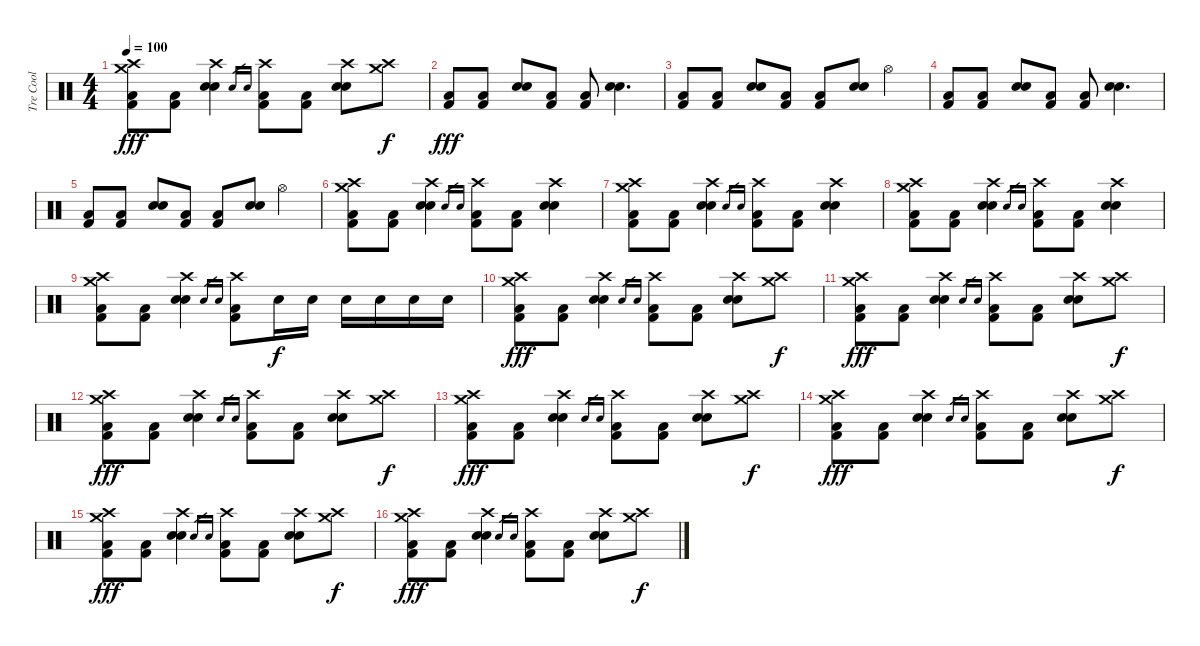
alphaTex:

\track ("Tre Cool" "Tre Cool") {instrument percussion}
\staff {score}
\articulation defaults
\ts (4 4)
\tempo 100
\clef neutral
\ks c
("Crash high (hit)" "Crash medium (hit)" "Kick (hit) 2" "Low Floor Tom (hit)").8{dy fff} ("Kick (hit) 2" "Low Floor Tom (hit)").8 ("Crash high (hit)" "Electric Snare (hit)" "Electric Snare (hit)").4 "Electric Snare (hit)".16{gr} "Electric Snare (hit)".16{gr} ("Crash high (hit)" "Kick (hit) 2" "Low Floor Tom (hit)").8 ("Kick (hit) 2" "Low Floor Tom (hit)").8 ("Crash high (hit)" "Electric Snare (hit)" "Electric Snare (hit)").8 ("Crash high (hit)" "Crash medium (hit)").8{dy f} |
("Kick (hit) 2" "Low Floor Tom (hit)").8{dy fff} ("Kick (hit) 2" "Low Floor Tom (hit)").8 ("Electric Snare (hit)" "Electric Snare (hit)").8 ("Kick (hit) 2" "Low Floor Tom (hit)").8 ("Kick (hit) 2" "Low Floor Tom (hit)").8 ("Electric Snare (hit)" "Electric Snare (hit)").4{d} |
("Kick (hit) 2" "Low Floor Tom (hit)").8 ("Kick (hit) 2" "Low Floor Tom (hit)").8 ("Electric Snare (hit)" "Electric Snare (hit)").8 ("Kick (hit) 2" "Low Floor Tom (hit)").8 ("Kick (hit) 2" "Low Floor Tom (hit)").8 ("Electric Snare (hit)" "Electric Snare (hit)").8 "Hi-Hat (open)".4 |
("Kick (hit) 2" "Low Floor Tom (hit)").8 ("Kick (hit) 2" "Low Floor Tom (hit)").8 ("Electric Snare (hit)" "Electric Snare (hit)").8 ("Kick (hit) 2" "Low Floor Tom (hit)").8 ("Kick (hit) 2" "Low Floor Tom (hit)").8 ("Electric Snare (hit)" "Electric Snare (hit)").4{d} |
("Kick (hit) 2" "Low Floor Tom (hit)").8 ("Kick (hit) 2" "Low Floor Tom (hit)").8 ("Electric Snare (hit)" "Electric Snare (hit)").8 ("Kick (hit) 2" "Low Floor Tom (hit)").8 ("Kick (hit) 2" "Low Floor Tom (hit)").8 ("Electric Snare (hit)" "Electric Snare (hit)").8 "Hi-Hat (open)".4 |
("Crash high (hit)" "Crash medium (hit)" "Kick (hit) 2" "Low Floor Tom (hit)").8 ("Kick (hit) 2" "Low Floor Tom (hit)").8 ("Crash high (hit)" "Electric Snare (hit)" "Electric Snare (hit)").4 "Electric Snare (hit)".16{gr} "Electric Snare (hit)".16{gr} ("Crash high (hit)" "Kick (hit) 2" "Low Floor Tom (hit)").8 ("Kick (hit) 2" "Low Floor Tom (hit)").8 ("Crash high (hit)" "Electric Snare (hit)" "Electric Snare (hit)").4 |
("Crash high (hit)" "Crash medium (hit)" "Kick (hit) 2" "Low Floor Tom (hit)").8 ("Kick (hit) 2" "Low Floor Tom (hit)").8 ("Crash high (hit)" "Electric Snare (hit)" "Electric Snare (hit)").4 "Electric Snare (hit)".16{gr} "Electric Snare (hit)".16{gr} ("Crash high (hit)" "Kick (hit) 2" "Low Floor Tom (hit)").8 ("Kick (hit) 2" "Low Floor Tom (hit)").8 ("Crash high (hit)" "Electric Snare (hit)" "Electric Snare (hit)").4 |
("Crash high (hit)" "Crash medium (hit)" "Kick (hit) 2" "Low Floor Tom (hit)").8 ("Kick (hit) 2" "Low Floor Tom (hit)").8 ("Crash high (hit)" "Electric Snare (hit)" "Electric Snare (hit)").4 "Electric Snare (hit)".16{gr} "Electric Snare (hit)".16{gr} ("Crash high (hit)" "Kick (hit) 2" "Low Floor Tom (hit)").8 ("Kick (hit) 2" "Low Floor Tom (hit)").8 ("Crash high (hit)" "Electric Snare (hit)" "Electric Snare (hit)").4 |
("Crash high (hit)" "Crash medium (hit)" "Kick (hit) 2" "Low Floor Tom (hit)").8 ("Kick (hit) 2" "Low Floor Tom (hit)").8 ("Crash high (hit)" "Electric Snare (hit)" "Electric Snare (hit)").4 "Electric Snare (hit)".16{gr} "Electric Snare (hit)".16{gr} ("Crash high (hit)" "Kick (hit) 2" "Low Floor Tom (hit)").8 "Electric Snare (hit)".16{dy f} "Electric Snare (hit)".16 "Electric Snare (hit)".16 "Electric Snare (hit)".16 "Electric Snare (hit)".16 "Electric Snare (hit)".16 |
("Crash high (hit)" "Crash medium (hit)" "Kick (hit) 2" "Low Floor Tom (hit)").8{dy fff} ("Kick (hit) 2" "Low Floor Tom (hit)").8 ("Crash high (hit)" "Electric Snare (hit)" "Electric Snare (hit)").4 "Electric Snare (hit)".16{gr} "Electric Snare (hit)".16{gr} ("Crash high (hit)" "Kick (hit) 2" "Low Floor Tom (hit)").8 ("Kick (hit) 2" "Low Floor Tom (hit)").8 ("Crash high (hit)" "Electric Snare (hit)" "Electric Snare (hit)").8 ("Crash high (hit)" "Crash medium (hit)").8{dy f} |
("Crash high (hit)" "Crash medium (hit)" "Kick (hit) 2" "Low Floor Tom (hit)").8{dy fff} ("Kick (hit) 2" "Low Floor Tom (hit)").8 ("Crash high (hit)" "Electric Snare (hit)" "Electric Snare (hit)").4 "Electric Snare (hit)".16{gr} "Electric Snare (hit)".16{gr} ("Crash high (hit)" "Kick (hit) 2" "Low Floor Tom (hit)").8 ("Kick (hit) 2" "Low Floor Tom (hit)").8 ("Crash high (hit)" "Electric Snare (hit)" "Electric Snare (hit)").8 ("Crash high (hit)" "Crash medium (hit)").8{dy f} |
("Crash high (hit)" "Crash medium (hit)" "Kick (hit) 2" "Low Floor Tom (hit)").8{dy fff} ("Kick (hit) 2" "Low Floor Tom (hit)").8 ("Crash high (hit)" "Electric Snare (hit)" "Electric Snare (hit)").4 "Electric Snare (hit)".16{gr} "Electric Snare (hit)".16{gr} ("Crash high (hit)" "Kick (hit) 2" "Low Floor Tom (hit)").8 ("Kick (hit) 2" "Low Floor Tom (hit)").8 ("Crash high (hit)" "Electric Snare (hit)" "Electric Snare (hit)").8 ("Crash high (hit)" "Crash medium (hit)").8{dy f} |
("Crash high (hit)" "Crash medium (hit)" "Kick (hit) 2" "Low Floor Tom (hit)").8{dy fff} ("Kick (hit) 2" "Low Floor Tom (hit)").8 ("Crash high (hit)" "Electric Snare (hit)" "Electric Snare (hit)").4 "Electric Snare (hit)".16{gr} "Electric Snare (hit)".16{gr} ("Crash high (hit)" "Kick (hit) 2" "Low Floor Tom (hit)").8 ("Kick (hit) 2" "Low Floor Tom (hit)").8 ("Crash high (hit)" "Electric Snare (hit)" "Electric Snare (hit)").8 ("Crash high (hit)" "Crash medium (hit)").8{dy f} |
("Crash high (hit)" "Crash medium (hit)" "Kick (hit) 2" "Low Floor Tom (hit)").8{dy fff} ("Kick (hit) 2" "Low Floor Tom (hit)").8 ("Crash high (hit)" "Electric Snare (hit)" "Electric Snare (hit)").4 "Electric Snare (hit)".16{gr} "Electric Snare (hit)".16{gr} ("Crash high (hit)" "Kick (hit) 2" "Low Floor Tom (hit)").8 ("Kick (hit) 2" "Low Floor Tom (hit)").8 ("Crash high (hit)" "Electric Snare (hit)" "Electric Snare (hit)").8 ("Crash high (hit)" "Crash medium (hit)").8{dy f} |
("Crash high (hit)" "Crash medium (hit)" "Kick (hit) 2" "Low Floor Tom (hit)").8{dy fff} ("Kick (hit) 2" "Low Floor Tom (hit)").8 ("Crash high (hit)" "Electric Snare (hit)" "Electric Snare (hit)").4 "Electric Snare (hit)".16{gr} "Electric Snare (hit)".16{gr} ("Crash high (hit)" "Kick (hit) 2" "Low Floor Tom (hit)").8 ("Kick (hit) 2" "Low Floor Tom (hit)").8 ("Crash high (hit)" "Electric Snare (hit)" "Electric Snare (hit)").8 ("Crash high (hit)" "Crash medium (hit)").8{dy f} |
("Crash high (hit)" "Crash medium (hit)" "Kick (hit) 2" "Low Floor Tom (hit)").8{dy fff} ("Kick (hit) 2" "Low Floor Tom (hit)").8 ("Crash high (hit)" "Electric Snare (hit)" "Electric Snare (hit)").4 "Electric Snare (hit)".16{gr} "Electric Snare (hit)".16{gr} ("Crash high (hit)" "Kick (hit) 2" "Low Floor Tom (hit)").8 ("Kick (hit) 2" "Low Floor Tom (hit)").8 ("Crash high (hit)" "Electric Snare (hit)" "Electric Snare (hit)").8 ("Crash high (hit)" "Crash medium (hit)").8{dy f}
